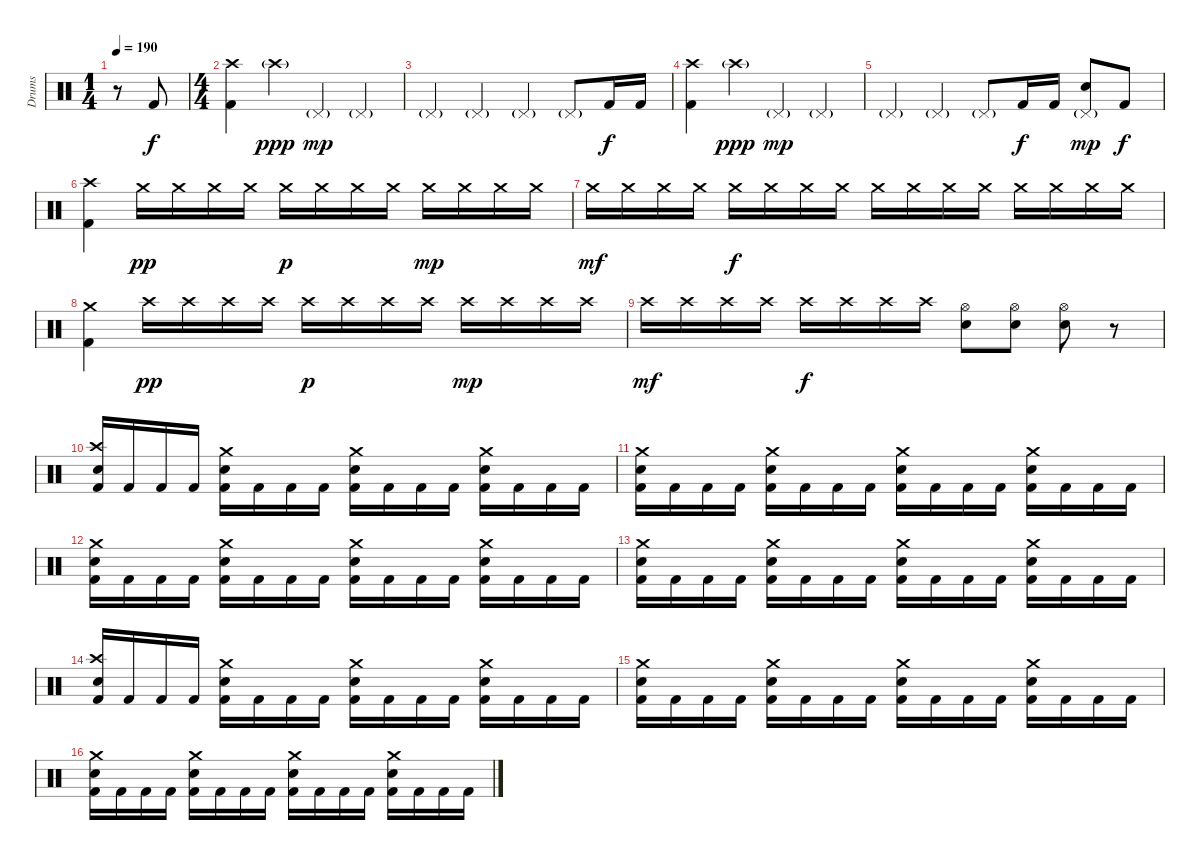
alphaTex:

\track ("Drums" "Drums") {instrument percussion}
\staff {score}
\articulation defaults
\ts (1 4)
\tempo 190
\clef neutral
\ks c
r.8{dy f} "Kick (hit) 2".8 |
\ts (4 4)
("Crash high (hit)" "Kick (hit) 2").4 "Crash high (hit)"{g}.4{dy ppp} "Pedal Hi-Hat (hit)"{g}.4{dy mp} "Pedal Hi-Hat (hit)"{g}.4 |
"Pedal Hi-Hat (hit)"{g}.4 "Pedal Hi-Hat (hit)"{g}.4 "Pedal Hi-Hat (hit)"{g}.4 "Pedal Hi-Hat (hit)"{g}.8 "Kick (hit) 2".16{dy f} "Kick (hit) 2".16 |
("Crash high (hit)" "Kick (hit) 2").4 "Crash high (hit)"{g}.4{dy ppp} "Pedal Hi-Hat (hit)"{g}.4{dy mp} "Pedal Hi-Hat (hit)"{g}.4 |
"Pedal Hi-Hat (hit)"{g}.4 "Pedal Hi-Hat (hit)"{g}.4 "Pedal Hi-Hat (hit)"{g}.8 "Kick (hit) 2".16{dy f} "Kick (hit) 2".16 ("Pedal Hi-Hat (hit)"{g} "Electric Snare (hit)").8{dy mp} "Kick (hit) 2".8{dy f} |
("Crash high (hit)" "Kick (hit) 2").4 "Crash medium (hit)".16{dy pp} "Crash medium (hit)".16 "Crash medium (hit)".16 "Crash medium (hit)".16 "Crash medium (hit)".16{dy p} "Crash medium (hit)".16 "Crash medium (hit)".16 "Crash medium (hit)".16 "Crash medium (hit)".16{dy mp} "Crash medium (hit)".16 "Crash medium (hit)".16 "Crash medium (hit)".16 |
"Crash medium (hit)".16{dy mf} "Crash medium (hit)".16 "Crash medium (hit)".16 "Crash medium (hit)".16 "Crash medium (hit)".16{dy f} "Crash medium (hit)".16 "Crash medium (hit)".16 "Crash medium (hit)".16 "Crash medium (hit)".16 "Crash medium (hit)".16 "Crash medium (hit)".16 "Crash medium (hit)".16 "Crash medium (hit)".16 "Crash medium (hit)".16 "Crash medium (hit)".16 "Crash medium (hit)".16 |
("Crash medium (hit)" "Kick (hit) 2").4 "Crash high (hit)".16{dy pp} "Crash high (hit)".16 "Crash high (hit)".16 "Crash high (hit)".16 "Crash high (hit)".16{dy p} "Crash high (hit)".16 "Crash high (hit)".16 "Crash high (hit)".16 "Crash high (hit)".16{dy mp} "Crash high (hit)".16 "Crash high (hit)".16 "Crash high (hit)".16 |
"Crash high (hit)".16{dy mf} "Crash high (hit)".16 "Crash high (hit)".16 "Crash high (hit)".16 "Crash high (hit)".16{dy f} "Crash high (hit)".16 "Crash high (hit)".16 "Crash high (hit)".16 ("Hi-Hat (open)" "Electric Snare (hit)").8 ("Hi-Hat (open)" "Electric Snare (hit)").8 ("Hi-Hat (open)" "Electric Snare (hit)").8 r.8 |
("Crash high (hit)" "Electric Snare (hit)" "Kick (hit) 2").16 "Kick (hit) 2".16 "Kick (hit) 2".16 "Kick (hit) 2".16 ("Crash medium (hit)" "Electric Snare (hit)" "Kick (hit) 2").16 "Kick (hit) 2".16 "Kick (hit) 2".16 "Kick (hit) 2".16 ("Crash medium (hit)" "Electric Snare (hit)" "Kick (hit) 2").16 "Kick (hit) 2".16 "Kick (hit) 2".16 "Kick (hit) 2".16 ("Crash medium (hit)" "Electric Snare (hit)" "Kick (hit) 2").16 "Kick (hit) 2".16 "Kick (hit) 2".16 "Kick (hit) 2".16 |
("Crash medium (hit)" "Electric Snare (hit)" "Kick (hit) 2").16 "Kick (hit) 2".16 "Kick (hit) 2".16 "Kick (hit) 2".16 ("Crash medium (hit)" "Electric Snare (hit)" "Kick (hit) 2").16 "Kick (hit) 2".16 "Kick (hit) 2".16 "Kick (hit) 2".16 ("Crash medium (hit)" "Electric Snare (hit)" "Kick (hit) 2").16 "Kick (hit) 2".16 "Kick (hit) 2".16 "Kick (hit) 2".16 ("Crash medium (hit)" "Electric Snare (hit)" "Kick (hit) 2").16 "Kick (hit) 2".16 "Kick (hit) 2".16 "Kick (hit) 2".16 |
("Crash medium (hit)" "Electric Snare (hit)" "Kick (hit) 2").16 "Kick (hit) 2".16 "Kick (hit) 2".16 "Kick (hit) 2".16 ("Crash medium (hit)" "Electric Snare (hit)" "Kick (hit) 2").16 "Kick (hit) 2".16 "Kick (hit) 2".16 "Kick (hit) 2".16 ("Crash medium (hit)" "Electric Snare (hit)" "Kick (hit) 2").16 "Kick (hit) 2".16 "Kick (hit) 2".16 "Kick (hit) 2".16 ("Crash medium (hit)" "Electric Snare (hit)" "Kick (hit) 2").16 "Kick (hit) 2".16 "Kick (hit) 2".16 "Kick (hit) 2".16 |
("Crash medium (hit)" "Electric Snare (hit)" "Kick (hit) 2").16 "Kick (hit) 2".16 "Kick (hit) 2".16 "Kick (hit) 2".16 ("Crash medium (hit)" "Electric Snare (hit)" "Kick (hit) 2").16 "Kick (hit) 2".16 "Kick (hit) 2".16 "Kick (hit) 2".16 ("Crash medium (hit)" "Electric Snare (hit)" "Kick (hit) 2").16 "Kick (hit) 2".16 "Kick (hit) 2".16 "Kick (hit) 2".16 ("Crash medium (hit)" "Electric Snare (hit)" "Kick (hit) 2").16 "Kick (hit) 2".16 "Kick (hit) 2".16 "Kick (hit) 2".16 |
("Crash high (hit)" "Electric Snare (hit)" "Kick (hit) 2").16 "Kick (hit) 2".16 "Kick (hit) 2".16 "Kick (hit) 2".16 ("Crash medium (hit)" "Electric Snare (hit)" "Kick (hit) 2").16 "Kick (hit) 2".16 "Kick (hit) 2".16 "Kick (hit) 2".16 ("Crash medium (hit)" "Electric Snare (hit)" "Kick (hit) 2").16 "Kick (hit) 2".16 "Kick (hit) 2".16 "Kick (hit) 2".16 ("Crash medium (hit)" "Electric Snare (hit)" "Kick (hit) 2").16 "Kick (hit) 2".16 "Kick (hit) 2".16 "Kick (hit) 2".16 |
("Crash medium (hit)" "Electric Snare (hit)" "Kick (hit) 2").16 "Kick (hit) 2".16 "Kick (hit) 2".16 "Kick (hit) 2".16 ("Crash medium (hit)" "Electric Snare (hit)" "Kick (hit) 2").16 "Kick (hit) 2".16 "Kick (hit) 2".16 "Kick (hit) 2".16 ("Crash medium (hit)" "Electric Snare (hit)" "Kick (hit) 2").16 "Kick (hit) 2".16 "Kick (hit) 2".16 "Kick (hit) 2".16 ("Crash medium (hit)" "Electric Snare (hit)" "Kick (hit) 2").16 "Kick (hit) 2".16 "Kick (hit) 2".16 "Kick (hit) 2".16 |
("Crash medium (hit)" "Electric Snare (hit)" "Kick (hit) 2").16 "Kick (hit) 2".16 "Kick (hit) 2".16 "Kick (hit) 2".16 ("Crash medium (hit)" "Electric Snare (hit)" "Kick (hit) 2").16 "Kick (hit) 2".16 "Kick (hit) 2".16 "Kick (hit) 2".16 ("Crash medium (hit)" "Electric Snare (hit)" "Kick (hit) 2").16 "Kick (hit) 2".16 "Kick (hit) 2".16 "Kick (hit) 2".16 ("Crash medium (hit)" "Electric Snare (hit)" "Kick (hit) 2").16 "Kick (hit) 2".16 "Kick (hit) 2".16 "Kick (hit) 2".16
